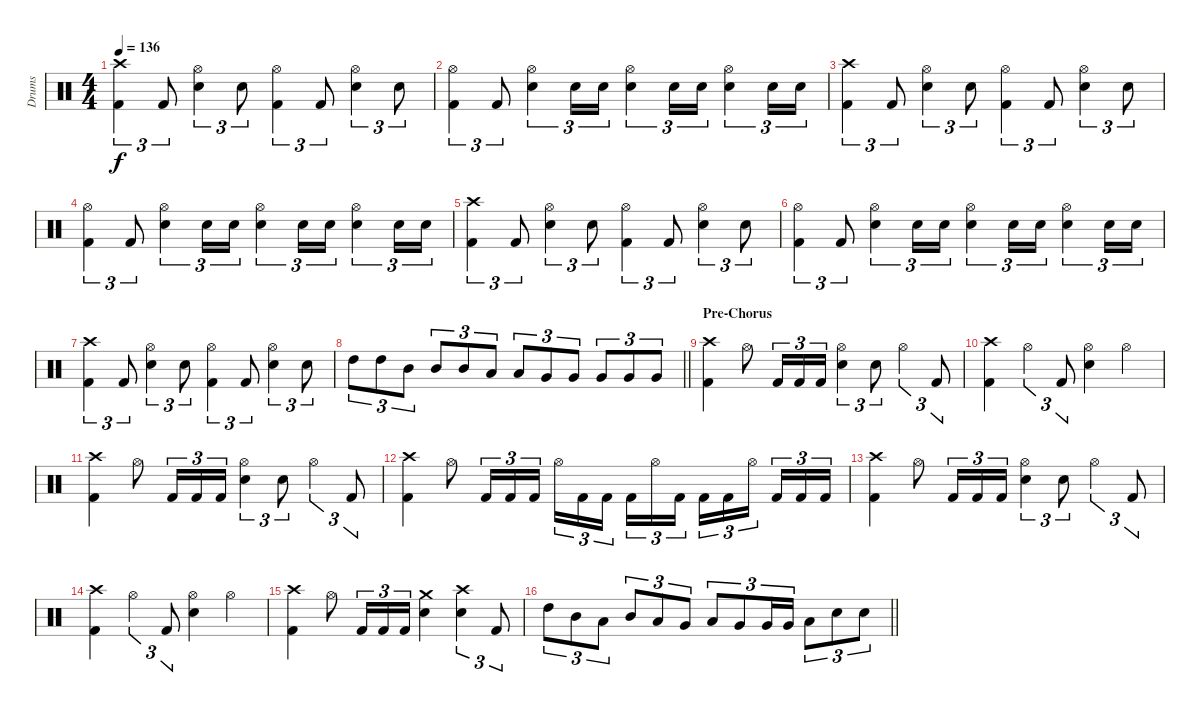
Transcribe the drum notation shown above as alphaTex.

\track ("Drums" "Drums") {instrument percussion}
\staff {score}
\articulation defaults
\ts (4 4)
\tempo 136
\clef neutral
\ks c
("Crash high (hit)" "Kick (hit) 2").4{tu (3 2) dy f} "Kick (hit) 2".8{tu (3 2)} ("Hi-Hat (open)" "Electric Snare (hit)").4{tu (3 2)} "Electric Snare (hit)".8{tu (3 2)} ("Hi-Hat (open)" "Kick (hit) 2").4{tu (3 2)} "Kick (hit) 2".8{tu (3 2)} ("Hi-Hat (open)" "Electric Snare (hit)").4{tu (3 2)} "Electric Snare (hit)".8{tu (3 2)} |
("Hi-Hat (open)" "Kick (hit) 2").4{tu (3 2)} "Kick (hit) 2".8{tu (3 2)} ("Hi-Hat (open)" "Electric Snare (hit)").4{tu (3 2)} "Electric Snare (hit)".16{tu (3 2)} "Electric Snare (hit)".16{tu (3 2)} ("Hi-Hat (open)" "Electric Snare (hit)").4{tu (3 2)} "Electric Snare (hit)".16{tu (3 2)} "Electric Snare (hit)".16{tu (3 2)} ("Hi-Hat (open)" "Electric Snare (hit)").4{tu (3 2)} "Electric Snare (hit)".16{tu (3 2)} "Electric Snare (hit)".16{tu (3 2)} |
("Crash high (hit)" "Kick (hit) 2").4{tu (3 2)} "Kick (hit) 2".8{tu (3 2)} ("Hi-Hat (open)" "Electric Snare (hit)").4{tu (3 2)} "Electric Snare (hit)".8{tu (3 2)} ("Hi-Hat (open)" "Kick (hit) 2").4{tu (3 2)} "Kick (hit) 2".8{tu (3 2)} ("Hi-Hat (open)" "Electric Snare (hit)").4{tu (3 2)} "Electric Snare (hit)".8{tu (3 2)} |
("Hi-Hat (open)" "Kick (hit) 2").4{tu (3 2)} "Kick (hit) 2".8{tu (3 2)} ("Hi-Hat (open)" "Electric Snare (hit)").4{tu (3 2)} "Electric Snare (hit)".16{tu (3 2)} "Electric Snare (hit)".16{tu (3 2)} ("Hi-Hat (open)" "Electric Snare (hit)").4{tu (3 2)} "Electric Snare (hit)".16{tu (3 2)} "Electric Snare (hit)".16{tu (3 2)} ("Hi-Hat (open)" "Electric Snare (hit)").4{tu (3 2)} "Electric Snare (hit)".16{tu (3 2)} "Electric Snare (hit)".16{tu (3 2)} |
("Crash high (hit)" "Kick (hit) 2").4{tu (3 2)} "Kick (hit) 2".8{tu (3 2)} ("Hi-Hat (open)" "Electric Snare (hit)").4{tu (3 2)} "Electric Snare (hit)".8{tu (3 2)} ("Hi-Hat (open)" "Kick (hit) 2").4{tu (3 2)} "Kick (hit) 2".8{tu (3 2)} ("Hi-Hat (open)" "Electric Snare (hit)").4{tu (3 2)} "Electric Snare (hit)".8{tu (3 2)} |
("Hi-Hat (open)" "Kick (hit) 2").4{tu (3 2)} "Kick (hit) 2".8{tu (3 2)} ("Hi-Hat (open)" "Electric Snare (hit)").4{tu (3 2)} "Electric Snare (hit)".16{tu (3 2)} "Electric Snare (hit)".16{tu (3 2)} ("Hi-Hat (open)" "Electric Snare (hit)").4{tu (3 2)} "Electric Snare (hit)".16{tu (3 2)} "Electric Snare (hit)".16{tu (3 2)} ("Hi-Hat (open)" "Electric Snare (hit)").4{tu (3 2)} "Electric Snare (hit)".16{tu (3 2)} "Electric Snare (hit)".16{tu (3 2)} |
("Crash high (hit)" "Kick (hit) 2").4{tu (3 2)} "Kick (hit) 2".8{tu (3 2)} ("Hi-Hat (open)" "Electric Snare (hit)").4{tu (3 2)} "Electric Snare (hit)".8{tu (3 2)} ("Hi-Hat (open)" "Kick (hit) 2").4{tu (3 2)} "Kick (hit) 2".8{tu (3 2)} ("Hi-Hat (open)" "Electric Snare (hit)").4{tu (3 2)} "Electric Snare (hit)".8{tu (3 2)} |
\barLineRight lightlight "High Tom (hit)".8{tu (3 2)} "High Tom (hit)".8{tu (3 2)} "Mid Tom (hit)".8{tu (3 2)} "Mid Tom (hit)".8{tu (3 2)} "Mid Tom (hit)".8{tu (3 2)} "Low Tom (hit)".8{tu (3 2)} "Low Tom (hit)".8{tu (3 2)} "Very Low Tom (hit)".8{tu (3 2)} "Very Low Tom (hit)".8{tu (3 2)} "Very Low Tom (hit)".8{tu (3 2)} "Very Low Tom (hit)".8{tu (3 2)} "Very Low Tom (hit)".8{tu (3 2)}
|
\section ("" "Pre-Chorus")
("Crash high (hit)" "Kick (hit) 2").4 "Hi-Hat (open)".8 "Kick (hit) 2".16{tu (3 2)} "Kick (hit) 2".16{tu (3 2)} "Kick (hit) 2".16{tu (3 2)} ("Hi-Hat (open)" "Electric Snare (hit)").4{tu (3 2)} "Electric Snare (hit)".8{tu (3 2)} "Hi-Hat (open)".4{tu (3 2)} "Kick (hit) 2".8{tu (3 2)} |
("Crash high (hit)" "Kick (hit) 2").4 "Hi-Hat (open)".4{tu (3 2)} "Kick (hit) 2".8{tu (3 2)} ("Hi-Hat (open)" "Electric Snare (hit)").4 "Hi-Hat (open)".4 |
("Crash high (hit)" "Kick (hit) 2").4 "Hi-Hat (open)".8 "Kick (hit) 2".16{tu (3 2)} "Kick (hit) 2".16{tu (3 2)} "Kick (hit) 2".16{tu (3 2)} ("Hi-Hat (open)" "Electric Snare (hit)").4{tu (3 2)} "Electric Snare (hit)".8{tu (3 2)} "Hi-Hat (open)".4{tu (3 2)} "Kick (hit) 2".8{tu (3 2)} |
("Crash high (hit)" "Kick (hit) 2").4 "Hi-Hat (open)".8 "Kick (hit) 2".16{tu (3 2)} "Kick (hit) 2".16{tu (3 2)} "Kick (hit) 2".16{tu (3 2)} "Hi-Hat (open)".16{tu (3 2)} "Kick (hit) 2".16{tu (3 2)} "Kick (hit) 2".16{tu (3 2) beam splitsecondary} "Kick (hit) 2".16{tu (3 2)} "Hi-Hat (open)".16{tu (3 2)} "Kick (hit) 2".16{tu (3 2)} "Kick (hit) 2".16{tu (3 2)} "Kick (hit) 2".16{tu (3 2)} "Hi-Hat (open)".16{tu (3 2) beam splitsecondary} "Kick (hit) 2".16{tu (3 2)} "Kick (hit) 2".16{tu (3 2)} "Kick (hit) 2".16{tu (3 2)} |
("Crash high (hit)" "Kick (hit) 2").4 "Hi-Hat (open)".8 "Kick (hit) 2".16{tu (3 2)} "Kick (hit) 2".16{tu (3 2)} "Kick (hit) 2".16{tu (3 2)} ("Hi-Hat (open)" "Electric Snare (hit)").4{tu (3 2)} "Electric Snare (hit)".8{tu (3 2)} "Hi-Hat (open)".4{tu (3 2)} "Kick (hit) 2".8{tu (3 2)} |
("Crash high (hit)" "Kick (hit) 2").4 "Hi-Hat (open)".4{tu (3 2)} "Kick (hit) 2".8{tu (3 2)} ("Hi-Hat (open)" "Electric Snare (hit)").4 "Hi-Hat (open)".4 |
("Crash high (hit)" "Kick (hit) 2").4 "Hi-Hat (open)".8 "Kick (hit) 2".16{tu (3 2)} "Kick (hit) 2".16{tu (3 2)} "Kick (hit) 2".16{tu (3 2)} ("Crash medium (hit)" "Electric Snare (hit)").4 ("Crash high (hit)" "Electric Snare (hit)").4{tu (3 2)} "Kick (hit) 2".8{tu (3 2)} |
\barLineRight lightlight "High Tom (hit)".8{tu (3 2)} "Mid Tom (hit)".8{tu (3 2)} "Low Tom (hit)".8{tu (3 2)} "Mid Tom (hit)".8{tu (3 2)} "Low Tom (hit)".8{tu (3 2)} "Very Low Tom (hit)".8{tu (3 2)} "Low Tom (hit)".8{tu (3 2)} "Very Low Tom (hit)".8{tu (3 2)} "Very Low Tom (hit)".16{tu (3 2)} "Very Low Tom (hit)".16{tu (3 2)} "Low Tom (hit)".8{tu (3 2)} "Electric Snare (hit)".8{tu (3 2)} "Electric Snare (hit)".8{tu (3 2)}
